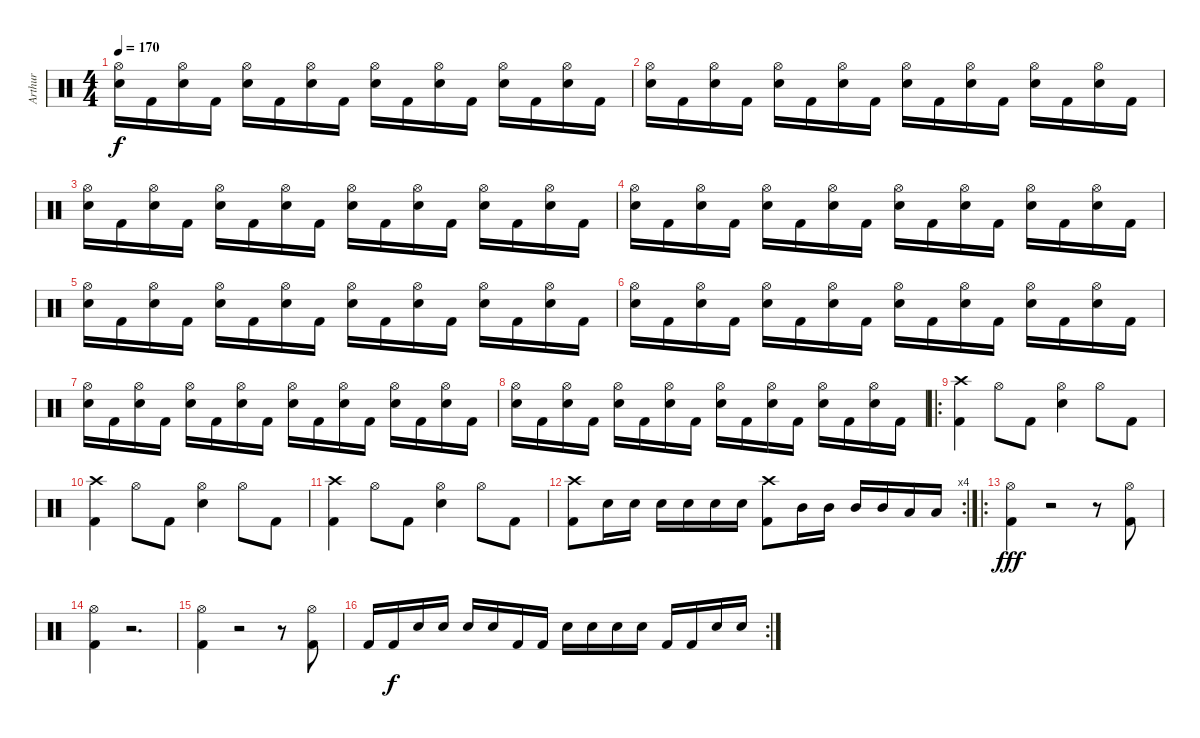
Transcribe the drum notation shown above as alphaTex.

\track ("Arthur" "Arthur") {instrument percussion}
\staff {score}
\articulation defaults
\ts (4 4)
\tempo 170
\clef neutral
\ks c
("Hi-Hat (open)" "Electric Snare (hit)").16{dy f} "Kick (hit) 2".16 ("Hi-Hat (open)" "Electric Snare (hit)").16 "Kick (hit) 2".16 ("Hi-Hat (open)" "Electric Snare (hit)").16 "Kick (hit) 2".16 ("Hi-Hat (open)" "Electric Snare (hit)").16 "Kick (hit) 2".16 ("Hi-Hat (open)" "Electric Snare (hit)").16 "Kick (hit) 2".16 ("Hi-Hat (open)" "Electric Snare (hit)").16 "Kick (hit) 2".16 ("Hi-Hat (open)" "Electric Snare (hit)").16 "Kick (hit) 2".16 ("Hi-Hat (open)" "Electric Snare (hit)").16 "Kick (hit) 2".16 |
("Hi-Hat (open)" "Electric Snare (hit)").16 "Kick (hit) 2".16 ("Hi-Hat (open)" "Electric Snare (hit)").16 "Kick (hit) 2".16 ("Hi-Hat (open)" "Electric Snare (hit)").16 "Kick (hit) 2".16 ("Hi-Hat (open)" "Electric Snare (hit)").16 "Kick (hit) 2".16 ("Hi-Hat (open)" "Electric Snare (hit)").16 "Kick (hit) 2".16 ("Hi-Hat (open)" "Electric Snare (hit)").16 "Kick (hit) 2".16 ("Hi-Hat (open)" "Electric Snare (hit)").16 "Kick (hit) 2".16 ("Hi-Hat (open)" "Electric Snare (hit)").16 "Kick (hit) 2".16 |
("Hi-Hat (open)" "Electric Snare (hit)").16 "Kick (hit) 2".16 ("Hi-Hat (open)" "Electric Snare (hit)").16 "Kick (hit) 2".16 ("Hi-Hat (open)" "Electric Snare (hit)").16 "Kick (hit) 2".16 ("Hi-Hat (open)" "Electric Snare (hit)").16 "Kick (hit) 2".16 ("Hi-Hat (open)" "Electric Snare (hit)").16 "Kick (hit) 2".16 ("Hi-Hat (open)" "Electric Snare (hit)").16 "Kick (hit) 2".16 ("Hi-Hat (open)" "Electric Snare (hit)").16 "Kick (hit) 2".16 ("Hi-Hat (open)" "Electric Snare (hit)").16 "Kick (hit) 2".16 |
("Hi-Hat (open)" "Electric Snare (hit)").16 "Kick (hit) 2".16 ("Hi-Hat (open)" "Electric Snare (hit)").16 "Kick (hit) 2".16 ("Hi-Hat (open)" "Electric Snare (hit)").16 "Kick (hit) 2".16 ("Hi-Hat (open)" "Electric Snare (hit)").16 "Kick (hit) 2".16 ("Hi-Hat (open)" "Electric Snare (hit)").16 "Kick (hit) 2".16 ("Hi-Hat (open)" "Electric Snare (hit)").16 "Kick (hit) 2".16 ("Hi-Hat (open)" "Electric Snare (hit)").16 "Kick (hit) 2".16 ("Hi-Hat (open)" "Electric Snare (hit)").16 "Kick (hit) 2".16 |
("Hi-Hat (open)" "Electric Snare (hit)").16 "Kick (hit) 2".16 ("Hi-Hat (open)" "Electric Snare (hit)").16 "Kick (hit) 2".16 ("Hi-Hat (open)" "Electric Snare (hit)").16 "Kick (hit) 2".16 ("Hi-Hat (open)" "Electric Snare (hit)").16 "Kick (hit) 2".16 ("Hi-Hat (open)" "Electric Snare (hit)").16 "Kick (hit) 2".16 ("Hi-Hat (open)" "Electric Snare (hit)").16 "Kick (hit) 2".16 ("Hi-Hat (open)" "Electric Snare (hit)").16 "Kick (hit) 2".16 ("Hi-Hat (open)" "Electric Snare (hit)").16 "Kick (hit) 2".16 |
("Hi-Hat (open)" "Electric Snare (hit)").16 "Kick (hit) 2".16 ("Hi-Hat (open)" "Electric Snare (hit)").16 "Kick (hit) 2".16 ("Hi-Hat (open)" "Electric Snare (hit)").16 "Kick (hit) 2".16 ("Hi-Hat (open)" "Electric Snare (hit)").16 "Kick (hit) 2".16 ("Hi-Hat (open)" "Electric Snare (hit)").16 "Kick (hit) 2".16 ("Hi-Hat (open)" "Electric Snare (hit)").16 "Kick (hit) 2".16 ("Hi-Hat (open)" "Electric Snare (hit)").16 "Kick (hit) 2".16 ("Hi-Hat (open)" "Electric Snare (hit)").16 "Kick (hit) 2".16 |
("Hi-Hat (open)" "Electric Snare (hit)").16 "Kick (hit) 2".16 ("Hi-Hat (open)" "Electric Snare (hit)").16 "Kick (hit) 2".16 ("Hi-Hat (open)" "Electric Snare (hit)").16 "Kick (hit) 2".16 ("Hi-Hat (open)" "Electric Snare (hit)").16 "Kick (hit) 2".16 ("Hi-Hat (open)" "Electric Snare (hit)").16 "Kick (hit) 2".16 ("Hi-Hat (open)" "Electric Snare (hit)").16 "Kick (hit) 2".16 ("Hi-Hat (open)" "Electric Snare (hit)").16 "Kick (hit) 2".16 ("Hi-Hat (open)" "Electric Snare (hit)").16 "Kick (hit) 2".16 |
("Hi-Hat (open)" "Electric Snare (hit)").16 "Kick (hit) 2".16 ("Hi-Hat (open)" "Electric Snare (hit)").16 "Kick (hit) 2".16 ("Hi-Hat (open)" "Electric Snare (hit)").16 "Kick (hit) 2".16 ("Hi-Hat (open)" "Electric Snare (hit)").16 "Kick (hit) 2".16 ("Hi-Hat (open)" "Electric Snare (hit)").16 "Kick (hit) 2".16 ("Hi-Hat (open)" "Electric Snare (hit)").16 "Kick (hit) 2".16 ("Hi-Hat (open)" "Electric Snare (hit)").16 "Kick (hit) 2".16 ("Hi-Hat (open)" "Electric Snare (hit)").16 "Kick (hit) 2".16 |
\ro
("Crash high (hit)" "Kick (hit) 2").4 "Hi-Hat (open)".8 "Kick (hit) 2".8 ("Hi-Hat (open)" "Electric Snare (hit)").4 "Hi-Hat (open)".8 "Kick (hit) 2".8 |
("Crash high (hit)" "Kick (hit) 2").4 "Hi-Hat (open)".8 "Kick (hit) 2".8 ("Hi-Hat (open)" "Electric Snare (hit)").4 "Hi-Hat (open)".8 "Kick (hit) 2".8 |
("Crash high (hit)" "Kick (hit) 2").4 "Hi-Hat (open)".8 "Kick (hit) 2".8 ("Hi-Hat (open)" "Electric Snare (hit)").4 "Hi-Hat (open)".8 "Kick (hit) 2".8 |
\rc 4
("Crash high (hit)" "Kick (hit) 2").8 "Electric Snare (hit)".16 "Electric Snare (hit)".16 "Electric Snare (hit)".16 "Electric Snare (hit)".16 "Electric Snare (hit)".16 "Electric Snare (hit)".16 ("Crash high (hit)" "Kick (hit) 2").8 "Mid Tom (hit)".16 "Mid Tom (hit)".16 "Mid Tom (hit)".16 "Mid Tom (hit)".16 "Low Tom (hit)".16 "Low Tom (hit)".16 |
\ro
("Hi-Hat (open)" "Kick (hit) 2").4{dy fff} r.2 r.8 ("Hi-Hat (open)" "Kick (hit) 2").8 |
("Hi-Hat (open)" "Kick (hit) 2").4 r.2{d} |
("Hi-Hat (open)" "Kick (hit) 2").4 r.2 r.8 ("Hi-Hat (open)" "Kick (hit) 2").8 |
\rc 2 "Kick (hit) 2".16 "Kick (hit) 2".16{dy f} "Electric Snare (hit)".16 "Electric Snare (hit)".16 "Electric Snare (hit)".16 "Electric Snare (hit)".16 "Kick (hit) 2".16 "Kick (hit) 2".16 "Electric Snare (hit)".16 "Electric Snare (hit)".16 "Electric Snare (hit)".16 "Electric Snare (hit)".16 "Kick (hit) 2".16 "Kick (hit) 2".16 "Electric Snare (hit)".16 "Electric Snare (hit)".16
